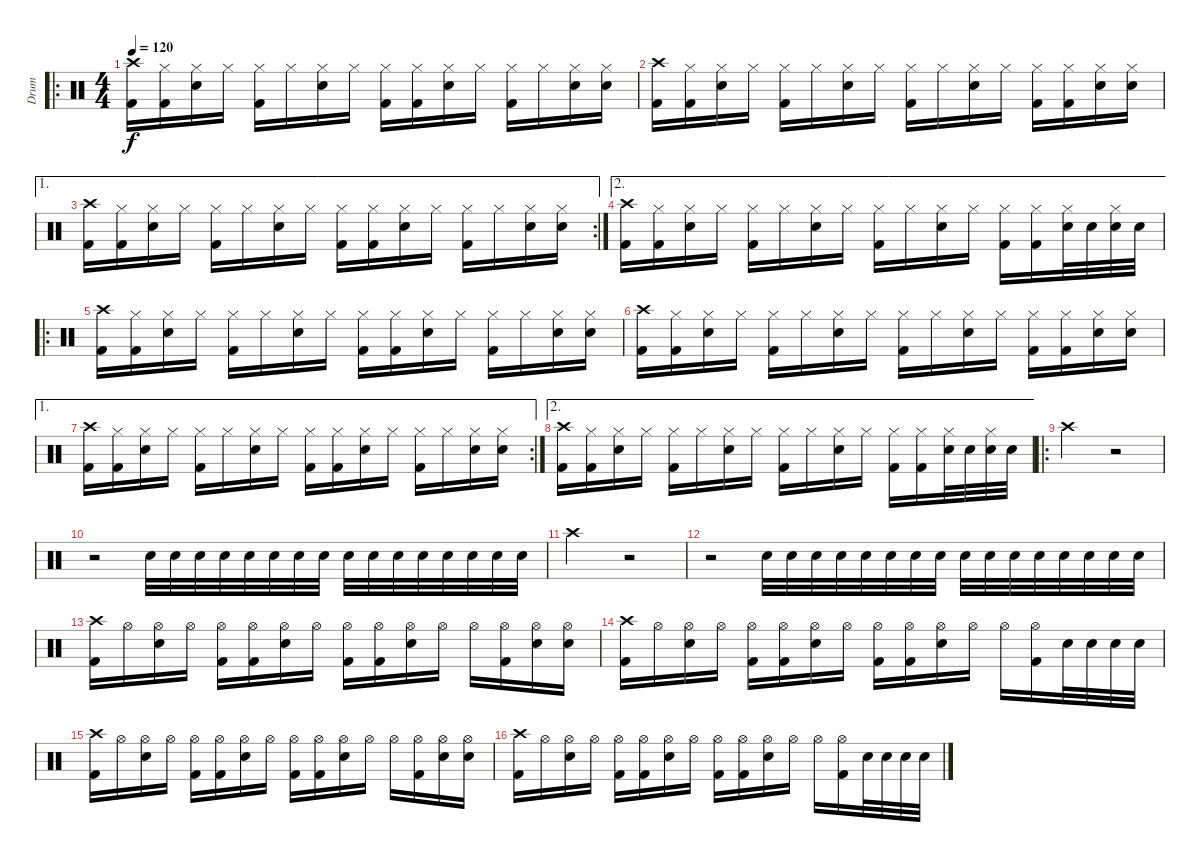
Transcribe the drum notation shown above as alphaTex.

\track ("Drum" "Drum") {instrument percussion}
\staff {score}
\articulation defaults
\ro
\ts (4 4)
\tempo 120
\clef neutral
\ks c
("Crash high (hit)" "Kick (hit) 2").16{dy f} ("Hi-Hat (closed)" "Kick (hit) 2").16 ("Hi-Hat (closed)" "Electric Snare (hit)").16 "Hi-Hat (closed)".16 ("Hi-Hat (closed)" "Kick (hit) 2").16 "Hi-Hat (closed)".16 ("Hi-Hat (closed)" "Electric Snare (hit)").16 "Hi-Hat (closed)".16 ("Hi-Hat (closed)" "Kick (hit) 2").16 ("Hi-Hat (closed)" "Kick (hit) 2").16 ("Hi-Hat (closed)" "Electric Snare (hit)").16 "Hi-Hat (closed)".16 ("Hi-Hat (closed)" "Kick (hit) 2").16 "Hi-Hat (closed)".16 ("Hi-Hat (closed)" "Electric Snare (hit)").16 ("Hi-Hat (closed)" "Electric Snare (hit)").16 |
("Crash high (hit)" "Kick (hit) 2").16 ("Hi-Hat (closed)" "Kick (hit) 2").16 ("Hi-Hat (closed)" "Electric Snare (hit)").16 "Hi-Hat (closed)".16 ("Hi-Hat (closed)" "Kick (hit) 2").16 "Hi-Hat (closed)".16 ("Hi-Hat (closed)" "Electric Snare (hit)").16 "Hi-Hat (closed)".16 ("Hi-Hat (closed)" "Kick (hit) 2").16 "Hi-Hat (closed)".16 ("Hi-Hat (closed)" "Electric Snare (hit)").16 "Hi-Hat (closed)".16 ("Hi-Hat (closed)" "Kick (hit) 2").16 ("Hi-Hat (closed)" "Kick (hit) 2").16 ("Hi-Hat (closed)" "Electric Snare (hit)").16 ("Hi-Hat (closed)" "Electric Snare (hit)").16 |
\ae 1
\rc 2
("Crash high (hit)" "Kick (hit) 2").16 ("Hi-Hat (closed)" "Kick (hit) 2").16 ("Hi-Hat (closed)" "Electric Snare (hit)").16 "Hi-Hat (closed)".16 ("Hi-Hat (closed)" "Kick (hit) 2").16 "Hi-Hat (closed)".16 ("Hi-Hat (closed)" "Electric Snare (hit)").16 "Hi-Hat (closed)".16 ("Hi-Hat (closed)" "Kick (hit) 2").16 ("Hi-Hat (closed)" "Kick (hit) 2").16 ("Hi-Hat (closed)" "Electric Snare (hit)").16 "Hi-Hat (closed)".16 ("Hi-Hat (closed)" "Kick (hit) 2").16 "Hi-Hat (closed)".16 ("Hi-Hat (closed)" "Electric Snare (hit)").16 ("Hi-Hat (closed)" "Electric Snare (hit)").16 |
\ae 2
("Crash high (hit)" "Kick (hit) 2").16 ("Hi-Hat (closed)" "Kick (hit) 2").16 ("Hi-Hat (closed)" "Electric Snare (hit)").16 "Hi-Hat (closed)".16 ("Hi-Hat (closed)" "Kick (hit) 2").16 "Hi-Hat (closed)".16 ("Hi-Hat (closed)" "Electric Snare (hit)").16 "Hi-Hat (closed)".16 ("Hi-Hat (closed)" "Kick (hit) 2").16 "Hi-Hat (closed)".16 ("Hi-Hat (closed)" "Electric Snare (hit)").16 "Hi-Hat (closed)".16 ("Hi-Hat (closed)" "Kick (hit) 2").16 ("Hi-Hat (closed)" "Kick (hit) 2").16 ("Hi-Hat (closed)" "Electric Snare (hit)").32 "Electric Snare (hit)".32 ("Hi-Hat (closed)" "Electric Snare (hit)").32 "Electric Snare (hit)".32 |
\ro
("Crash high (hit)" "Kick (hit) 2").16 ("Hi-Hat (closed)" "Kick (hit) 2").16 ("Hi-Hat (closed)" "Electric Snare (hit)").16 "Hi-Hat (closed)".16 ("Hi-Hat (closed)" "Kick (hit) 2").16 "Hi-Hat (closed)".16 ("Hi-Hat (closed)" "Electric Snare (hit)").16 "Hi-Hat (closed)".16 ("Hi-Hat (closed)" "Kick (hit) 2").16 ("Hi-Hat (closed)" "Kick (hit) 2").16 ("Hi-Hat (closed)" "Electric Snare (hit)").16 "Hi-Hat (closed)".16 ("Hi-Hat (closed)" "Kick (hit) 2").16 "Hi-Hat (closed)".16 ("Hi-Hat (closed)" "Electric Snare (hit)").16 ("Hi-Hat (closed)" "Electric Snare (hit)").16 |
("Crash high (hit)" "Kick (hit) 2").16 ("Hi-Hat (closed)" "Kick (hit) 2").16 ("Hi-Hat (closed)" "Electric Snare (hit)").16 "Hi-Hat (closed)".16 ("Hi-Hat (closed)" "Kick (hit) 2").16 "Hi-Hat (closed)".16 ("Hi-Hat (closed)" "Electric Snare (hit)").16 "Hi-Hat (closed)".16 ("Hi-Hat (closed)" "Kick (hit) 2").16 "Hi-Hat (closed)".16 ("Hi-Hat (closed)" "Electric Snare (hit)").16 "Hi-Hat (closed)".16 ("Hi-Hat (closed)" "Kick (hit) 2").16 ("Hi-Hat (closed)" "Kick (hit) 2").16 ("Hi-Hat (closed)" "Electric Snare (hit)").16 ("Hi-Hat (closed)" "Electric Snare (hit)").16 |
\ae 1
\rc 2
("Crash high (hit)" "Kick (hit) 2").16 ("Hi-Hat (closed)" "Kick (hit) 2").16 ("Hi-Hat (closed)" "Electric Snare (hit)").16 "Hi-Hat (closed)".16 ("Hi-Hat (closed)" "Kick (hit) 2").16 "Hi-Hat (closed)".16 ("Hi-Hat (closed)" "Electric Snare (hit)").16 "Hi-Hat (closed)".16 ("Hi-Hat (closed)" "Kick (hit) 2").16 ("Hi-Hat (closed)" "Kick (hit) 2").16 ("Hi-Hat (closed)" "Electric Snare (hit)").16 "Hi-Hat (closed)".16 ("Hi-Hat (closed)" "Kick (hit) 2").16 "Hi-Hat (closed)".16 ("Hi-Hat (closed)" "Electric Snare (hit)").16 ("Hi-Hat (closed)" "Electric Snare (hit)").16 |
\ae 2
("Crash high (hit)" "Kick (hit) 2").16 ("Hi-Hat (closed)" "Kick (hit) 2").16 ("Hi-Hat (closed)" "Electric Snare (hit)").16 "Hi-Hat (closed)".16 ("Hi-Hat (closed)" "Kick (hit) 2").16 "Hi-Hat (closed)".16 ("Hi-Hat (closed)" "Electric Snare (hit)").16 "Hi-Hat (closed)".16 ("Hi-Hat (closed)" "Kick (hit) 2").16 "Hi-Hat (closed)".16 ("Hi-Hat (closed)" "Electric Snare (hit)").16 "Hi-Hat (closed)".16 ("Hi-Hat (closed)" "Kick (hit) 2").16 ("Hi-Hat (closed)" "Kick (hit) 2").16 ("Hi-Hat (closed)" "Electric Snare (hit)").32 "Electric Snare (hit)".32 ("Hi-Hat (closed)" "Electric Snare (hit)").32 "Electric Snare (hit)".32 |
\ro "Crash high (hit)".2
r.2 |
r.2{volume 0} "Electric Snare (hit)".32{volume 16} "Electric Snare (hit)".32 "Electric Snare (hit)".32 "Electric Snare (hit)".32 "Electric Snare (hit)".32 "Electric Snare (hit)".32 "Electric Snare (hit)".32 "Electric Snare (hit)".32 "Electric Snare (hit)".32 "Electric Snare (hit)".32 "Electric Snare (hit)".32 "Electric Snare (hit)".32 "Electric Snare (hit)".32 "Electric Snare (hit)".32 "Electric Snare (hit)".32 "Electric Snare (hit)".32 |
"Crash high (hit)".2 r.2 |
r.2{volume 0} "Electric Snare (hit)".32{volume 16} "Electric Snare (hit)".32 "Electric Snare (hit)".32 "Electric Snare (hit)".32 "Electric Snare (hit)".32 "Electric Snare (hit)".32 "Electric Snare (hit)".32 "Electric Snare (hit)".32 "Electric Snare (hit)".32 "Electric Snare (hit)".32 "Electric Snare (hit)".32 "Electric Snare (hit)".32 "Electric Snare (hit)".32 "Electric Snare (hit)".32 "Electric Snare (hit)".32 "Electric Snare (hit)".32 |
("Crash high (hit)" "Kick (hit) 2").16 "Hi-Hat (open)".16 ("Hi-Hat (open)" "Electric Snare (hit)").16 "Hi-Hat (open)".16 ("Hi-Hat (open)" "Kick (hit) 2").16 ("Hi-Hat (open)" "Kick (hit) 2").16 ("Hi-Hat (open)" "Electric Snare (hit)").16 "Hi-Hat (open)".16 ("Hi-Hat (open)" "Kick (hit) 2").16 ("Hi-Hat (open)" "Kick (hit) 2").16 ("Hi-Hat (open)" "Electric Snare (hit)").16 "Hi-Hat (open)".16 "Hi-Hat (open)".16 ("Hi-Hat (open)" "Kick (hit) 2").16 ("Hi-Hat (open)" "Electric Snare (hit)").16 ("Hi-Hat (open)" "Electric Snare (hit)").16 |
("Crash high (hit)" "Kick (hit) 2").16 "Hi-Hat (open)".16 ("Hi-Hat (open)" "Electric Snare (hit)").16 "Hi-Hat (open)".16 ("Hi-Hat (open)" "Kick (hit) 2").16 ("Hi-Hat (open)" "Kick (hit) 2").16 ("Hi-Hat (open)" "Electric Snare (hit)").16 "Hi-Hat (open)".16 ("Hi-Hat (open)" "Kick (hit) 2").16 ("Hi-Hat (open)" "Kick (hit) 2").16 ("Hi-Hat (open)" "Electric Snare (hit)").16 "Hi-Hat (open)".16 "Hi-Hat (open)".16 ("Hi-Hat (open)" "Kick (hit) 2").16 "Electric Snare (hit)".32 "Electric Snare (hit)".32 "Electric Snare (hit)".32 "Electric Snare (hit)".32 |
("Crash high (hit)" "Kick (hit) 2").16 "Hi-Hat (open)".16 ("Hi-Hat (open)" "Electric Snare (hit)").16 "Hi-Hat (open)".16 ("Hi-Hat (open)" "Kick (hit) 2").16 ("Hi-Hat (open)" "Kick (hit) 2").16 ("Hi-Hat (open)" "Electric Snare (hit)").16 "Hi-Hat (open)".16 ("Hi-Hat (open)" "Kick (hit) 2").16 ("Hi-Hat (open)" "Kick (hit) 2").16 ("Hi-Hat (open)" "Electric Snare (hit)").16 "Hi-Hat (open)".16 "Hi-Hat (open)".16 ("Hi-Hat (open)" "Kick (hit) 2").16 ("Hi-Hat (open)" "Electric Snare (hit)").16 ("Hi-Hat (open)" "Electric Snare (hit)").16 |
("Crash high (hit)" "Kick (hit) 2").16 "Hi-Hat (open)".16 ("Hi-Hat (open)" "Electric Snare (hit)").16 "Hi-Hat (open)".16 ("Hi-Hat (open)" "Kick (hit) 2").16 ("Hi-Hat (open)" "Kick (hit) 2").16 ("Hi-Hat (open)" "Electric Snare (hit)").16 "Hi-Hat (open)".16 ("Hi-Hat (open)" "Kick (hit) 2").16 ("Hi-Hat (open)" "Kick (hit) 2").16 ("Hi-Hat (open)" "Electric Snare (hit)").16 "Hi-Hat (open)".16 "Hi-Hat (open)".16 ("Hi-Hat (open)" "Kick (hit) 2").16 "Electric Snare (hit)".32 "Electric Snare (hit)".32 "Electric Snare (hit)".32 "Electric Snare (hit)".32
